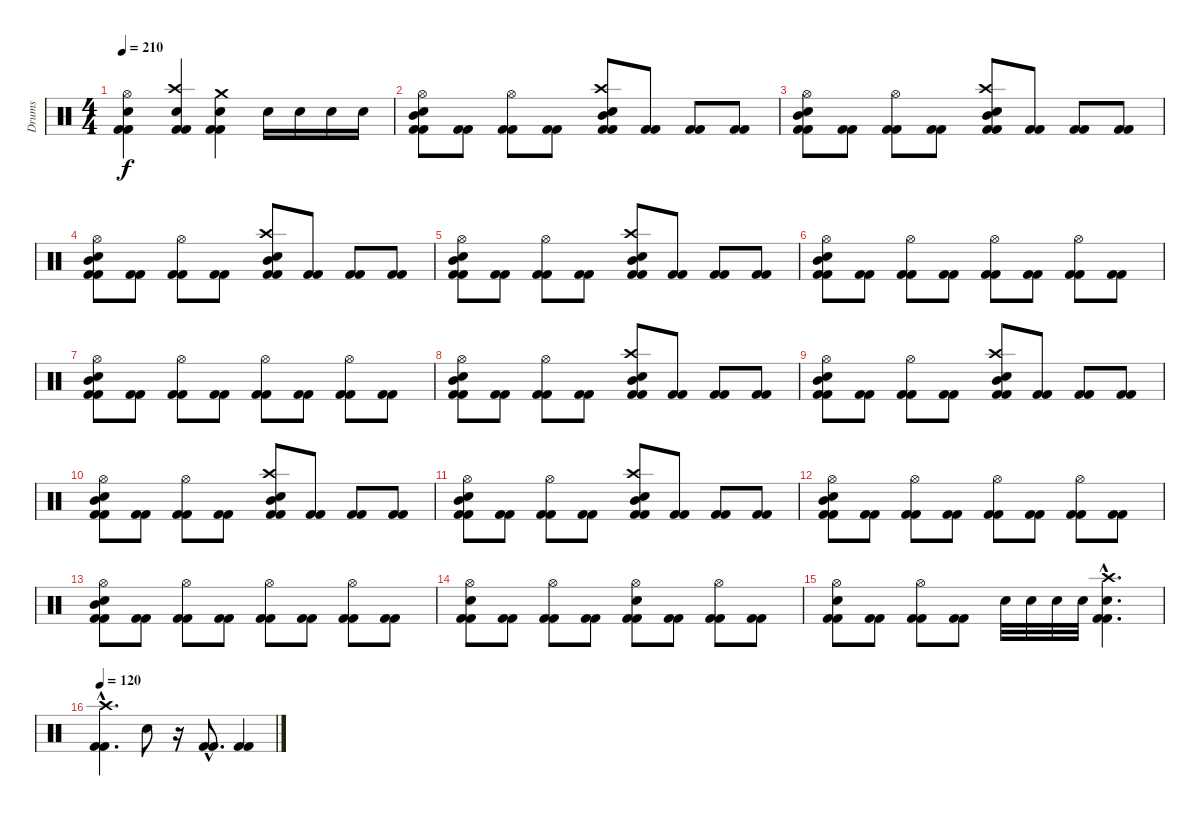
\track ("Drums" "Drums") {instrument percussion}
\staff {score}
\articulation defaults
\ts (4 4)
\tempo 210
\clef neutral
\ks c
("Hi-Hat (open)" "Snare (hit) 2" "Kick (hit) 2" "Kick (hit) 2").4{dy f} ("Crash high (hit)" "Electric Snare (hit)" "Kick (hit) 2" "Kick (hit) 2").4 ("Crash medium (hit)" "Snare (hit) 2" "Kick (hit) 2" "Kick (hit) 2").4 "Snare (hit) 2".16 "Snare (hit) 2".16 "Snare (hit) 2".16 "Snare (hit) 2".16 |
("Hi-Hat (open)" "Mid Tom (hit)" "Snare (hit) 2" "Kick (hit) 2" "Kick (hit) 2").8 ("Kick (hit) 2" "Kick (hit) 2").8 ("Hi-Hat (open)" "Kick (hit) 2" "Kick (hit) 2").8 ("Kick (hit) 2" "Kick (hit) 2").8 ("Crash high (hit)" "Mid Tom (hit)" "Snare (hit) 2" "Kick (hit) 2" "Kick (hit) 2").8 ("Kick (hit) 2" "Kick (hit) 2").8 ("Kick (hit) 2" "Kick (hit) 2").8 ("Kick (hit) 2" "Kick (hit) 2").8 |
("Hi-Hat (open)" "Mid Tom (hit)" "Snare (hit) 2" "Kick (hit) 2" "Kick (hit) 2").8 ("Kick (hit) 2" "Kick (hit) 2").8 ("Hi-Hat (open)" "Kick (hit) 2" "Kick (hit) 2").8 ("Kick (hit) 2" "Kick (hit) 2").8 ("Crash high (hit)" "Mid Tom (hit)" "Snare (hit) 2" "Kick (hit) 2" "Kick (hit) 2").8 ("Kick (hit) 2" "Kick (hit) 2").8 ("Kick (hit) 2" "Kick (hit) 2").8 ("Kick (hit) 2" "Kick (hit) 2").8 |
("Hi-Hat (open)" "Mid Tom (hit)" "Snare (hit) 2" "Kick (hit) 2" "Kick (hit) 2").8 ("Kick (hit) 2" "Kick (hit) 2").8 ("Hi-Hat (open)" "Kick (hit) 2" "Kick (hit) 2").8 ("Kick (hit) 2" "Kick (hit) 2").8 ("Crash high (hit)" "Mid Tom (hit)" "Snare (hit) 2" "Kick (hit) 2" "Kick (hit) 2").8 ("Kick (hit) 2" "Kick (hit) 2").8 ("Kick (hit) 2" "Kick (hit) 2").8 ("Kick (hit) 2" "Kick (hit) 2").8 |
("Hi-Hat (open)" "Mid Tom (hit)" "Snare (hit) 2" "Kick (hit) 2" "Kick (hit) 2").8 ("Kick (hit) 2" "Kick (hit) 2").8 ("Hi-Hat (open)" "Kick (hit) 2" "Kick (hit) 2").8 ("Kick (hit) 2" "Kick (hit) 2").8 ("Crash high (hit)" "Mid Tom (hit)" "Snare (hit) 2" "Kick (hit) 2" "Kick (hit) 2").8 ("Kick (hit) 2" "Kick (hit) 2").8 ("Kick (hit) 2" "Kick (hit) 2").8 ("Kick (hit) 2" "Kick (hit) 2").8 |
("Hi-Hat (open)" "Mid Tom (hit)" "Snare (hit) 2" "Kick (hit) 2" "Kick (hit) 2").8 ("Kick (hit) 2" "Kick (hit) 2").8 ("Hi-Hat (open)" "Kick (hit) 2" "Kick (hit) 2").8 ("Kick (hit) 2" "Kick (hit) 2").8 ("Hi-Hat (open)" "Kick (hit) 2" "Kick (hit) 2").8 ("Kick (hit) 2" "Kick (hit) 2").8 ("Hi-Hat (open)" "Kick (hit) 2" "Kick (hit) 2").8 ("Kick (hit) 2" "Kick (hit) 2").8 |
("Hi-Hat (open)" "Mid Tom (hit)" "Snare (hit) 2" "Kick (hit) 2" "Kick (hit) 2").8 ("Kick (hit) 2" "Kick (hit) 2").8 ("Hi-Hat (open)" "Kick (hit) 2" "Kick (hit) 2").8 ("Kick (hit) 2" "Kick (hit) 2").8 ("Hi-Hat (open)" "Kick (hit) 2" "Kick (hit) 2").8 ("Kick (hit) 2" "Kick (hit) 2").8 ("Hi-Hat (open)" "Kick (hit) 2" "Kick (hit) 2").8 ("Kick (hit) 2" "Kick (hit) 2").8 |
("Hi-Hat (open)" "Mid Tom (hit)" "Snare (hit) 2" "Kick (hit) 2" "Kick (hit) 2").8 ("Kick (hit) 2" "Kick (hit) 2").8 ("Hi-Hat (open)" "Kick (hit) 2" "Kick (hit) 2").8 ("Kick (hit) 2" "Kick (hit) 2").8 ("Crash high (hit)" "Mid Tom (hit)" "Snare (hit) 2" "Kick (hit) 2" "Kick (hit) 2").8 ("Kick (hit) 2" "Kick (hit) 2").8 ("Kick (hit) 2" "Kick (hit) 2").8 ("Kick (hit) 2" "Kick (hit) 2").8 |
("Hi-Hat (open)" "Mid Tom (hit)" "Snare (hit) 2" "Kick (hit) 2" "Kick (hit) 2").8 ("Kick (hit) 2" "Kick (hit) 2").8 ("Hi-Hat (open)" "Kick (hit) 2" "Kick (hit) 2").8 ("Kick (hit) 2" "Kick (hit) 2").8 ("Crash high (hit)" "Mid Tom (hit)" "Snare (hit) 2" "Kick (hit) 2" "Kick (hit) 2").8 ("Kick (hit) 2" "Kick (hit) 2").8 ("Kick (hit) 2" "Kick (hit) 2").8 ("Kick (hit) 2" "Kick (hit) 2").8 |
("Hi-Hat (open)" "Mid Tom (hit)" "Snare (hit) 2" "Kick (hit) 2" "Kick (hit) 2").8 ("Kick (hit) 2" "Kick (hit) 2").8 ("Hi-Hat (open)" "Kick (hit) 2" "Kick (hit) 2").8 ("Kick (hit) 2" "Kick (hit) 2").8 ("Crash high (hit)" "Mid Tom (hit)" "Snare (hit) 2" "Kick (hit) 2" "Kick (hit) 2").8 ("Kick (hit) 2" "Kick (hit) 2").8 ("Kick (hit) 2" "Kick (hit) 2").8 ("Kick (hit) 2" "Kick (hit) 2").8 |
("Hi-Hat (open)" "Mid Tom (hit)" "Snare (hit) 2" "Kick (hit) 2" "Kick (hit) 2").8 ("Kick (hit) 2" "Kick (hit) 2").8 ("Hi-Hat (open)" "Kick (hit) 2" "Kick (hit) 2").8 ("Kick (hit) 2" "Kick (hit) 2").8 ("Crash high (hit)" "Mid Tom (hit)" "Snare (hit) 2" "Kick (hit) 2" "Kick (hit) 2").8 ("Kick (hit) 2" "Kick (hit) 2").8 ("Kick (hit) 2" "Kick (hit) 2").8 ("Kick (hit) 2" "Kick (hit) 2").8 |
("Hi-Hat (open)" "Mid Tom (hit)" "Snare (hit) 2" "Kick (hit) 2" "Kick (hit) 2").8 ("Kick (hit) 2" "Kick (hit) 2").8 ("Hi-Hat (open)" "Kick (hit) 2" "Kick (hit) 2").8 ("Kick (hit) 2" "Kick (hit) 2").8 ("Hi-Hat (open)" "Kick (hit) 2" "Kick (hit) 2").8 ("Kick (hit) 2" "Kick (hit) 2").8 ("Hi-Hat (open)" "Kick (hit) 2" "Kick (hit) 2").8 ("Kick (hit) 2" "Kick (hit) 2").8 |
("Hi-Hat (open)" "Mid Tom (hit)" "Snare (hit) 2" "Kick (hit) 2" "Kick (hit) 2").8 ("Kick (hit) 2" "Kick (hit) 2").8 ("Hi-Hat (open)" "Kick (hit) 2" "Kick (hit) 2").8 ("Kick (hit) 2" "Kick (hit) 2").8 ("Hi-Hat (open)" "Kick (hit) 2" "Kick (hit) 2").8 ("Kick (hit) 2" "Kick (hit) 2").8 ("Hi-Hat (open)" "Kick (hit) 2" "Kick (hit) 2").8 ("Kick (hit) 2" "Kick (hit) 2").8 |
("Hi-Hat (open)" "Snare (hit) 2" "Kick (hit) 2" "Kick (hit) 2").8 ("Kick (hit) 2" "Kick (hit) 2").8 ("Hi-Hat (open)" "Kick (hit) 2" "Kick (hit) 2").8 ("Kick (hit) 2" "Kick (hit) 2").8 ("Hi-Hat (open)" "Snare (hit) 2" "Kick (hit) 2" "Kick (hit) 2").8 ("Kick (hit) 2" "Kick (hit) 2").8 ("Hi-Hat (open)" "Kick (hit) 2" "Kick (hit) 2").8 ("Kick (hit) 2" "Kick (hit) 2").8 |
("Hi-Hat (open)" "Snare (hit) 2" "Kick (hit) 2" "Kick (hit) 2").8 ("Kick (hit) 2" "Kick (hit) 2").8 ("Hi-Hat (open)" "Kick (hit) 2" "Kick (hit) 2").8 ("Kick (hit) 2" "Kick (hit) 2").8 "Snare (hit) 2".32 "Snare (hit) 2".32 "Snare (hit) 2".32 "Snare (hit) 2".32 ("Crash high (hit)"{hac} "Snare (hit) 2"{hac} "Kick (hit) 2"{hac} "Kick (hit) 2"{hac}).4{d} |
\tempo 120
("Crash high (hit)"{hac} "Kick (hit) 2"{hac} "Kick (hit) 2"{hac}).4{d} "Electric Snare (hit)".8 r.16 ("Kick (hit) 2"{hac} "Kick (hit) 2"{hac}).8{d} ("Kick (hit) 2" "Kick (hit) 2").4
